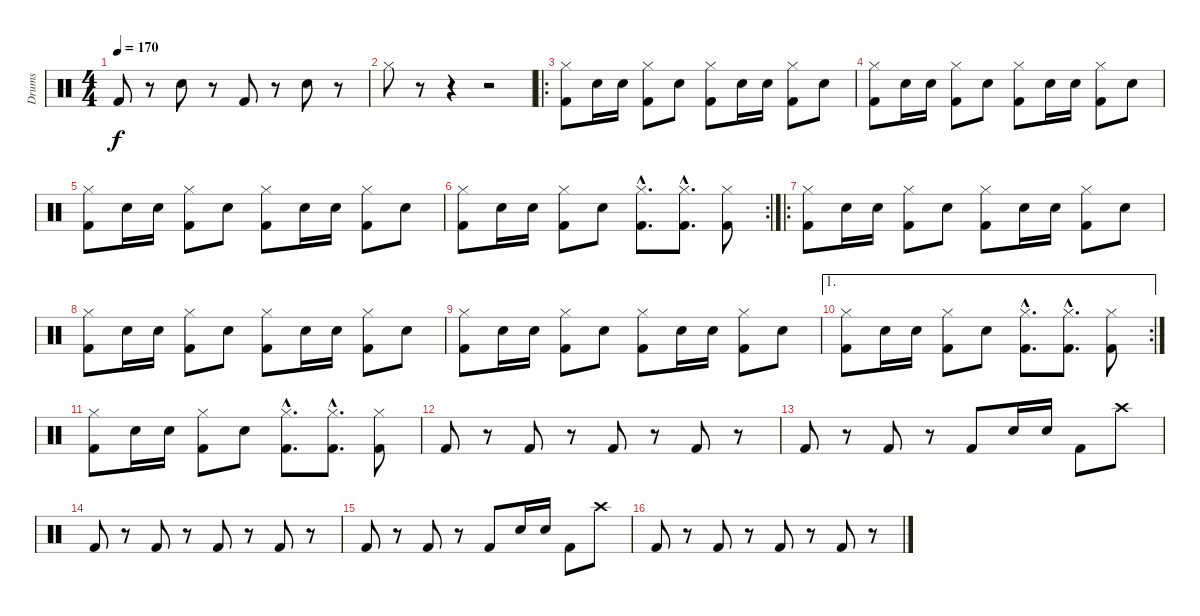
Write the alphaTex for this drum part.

\track ("Drums" "Drums") {instrument percussion}
\staff {score}
\articulation defaults
\ts (4 4)
\tempo 170
\clef neutral
\ks c "Kick (hit) 2".8{dy f}
r.8 "Electric Snare (hit)".8 r.8 "Kick (hit) 2".8 r.8 "Electric Snare (hit)".8 r.8 |
"Hi-Hat (closed)".8 r.8 r.4 r.2 |
\ro
("Hi-Hat (closed)" "Kick (hit) 2").8 "Electric Snare (hit)".16 "Electric Snare (hit)".16 ("Hi-Hat (closed)" "Kick (hit) 2").8 "Electric Snare (hit)".8 ("Hi-Hat (closed)" "Kick (hit) 2").8 "Electric Snare (hit)".16 "Electric Snare (hit)".16 ("Hi-Hat (closed)" "Kick (hit) 2").8 "Electric Snare (hit)".8 |
("Hi-Hat (closed)" "Kick (hit) 2").8 "Electric Snare (hit)".16 "Electric Snare (hit)".16 ("Hi-Hat (closed)" "Kick (hit) 2").8 "Electric Snare (hit)".8 ("Hi-Hat (closed)" "Kick (hit) 2").8 "Electric Snare (hit)".16 "Electric Snare (hit)".16 ("Hi-Hat (closed)" "Kick (hit) 2").8 "Electric Snare (hit)".8 |
("Hi-Hat (closed)" "Kick (hit) 2").8 "Electric Snare (hit)".16 "Electric Snare (hit)".16 ("Hi-Hat (closed)" "Kick (hit) 2").8 "Electric Snare (hit)".8 ("Hi-Hat (closed)" "Kick (hit) 2").8 "Electric Snare (hit)".16 "Electric Snare (hit)".16 ("Hi-Hat (closed)" "Kick (hit) 2").8 "Electric Snare (hit)".8 |
\rc 2
("Hi-Hat (closed)" "Kick (hit) 2").8 "Electric Snare (hit)".16 "Electric Snare (hit)".16 ("Hi-Hat (closed)" "Kick (hit) 2").8 "Electric Snare (hit)".8 ("Hi-Hat (closed)"{hac} "Kick (hit) 2"{hac}).8{d} ("Hi-Hat (closed)"{hac} "Kick (hit) 2"{hac}).8{d} ("Hi-Hat (closed)" "Kick (hit) 2").8 |
\ro
("Hi-Hat (closed)" "Kick (hit) 2").8 "Electric Snare (hit)".16 "Electric Snare (hit)".16 ("Hi-Hat (closed)" "Kick (hit) 2").8 "Electric Snare (hit)".8 ("Hi-Hat (closed)" "Kick (hit) 2").8 "Electric Snare (hit)".16 "Electric Snare (hit)".16 ("Hi-Hat (closed)" "Kick (hit) 2").8 "Electric Snare (hit)".8 |
("Hi-Hat (closed)" "Kick (hit) 2").8 "Electric Snare (hit)".16 "Electric Snare (hit)".16 ("Hi-Hat (closed)" "Kick (hit) 2").8 "Electric Snare (hit)".8 ("Hi-Hat (closed)" "Kick (hit) 2").8 "Electric Snare (hit)".16 "Electric Snare (hit)".16 ("Hi-Hat (closed)" "Kick (hit) 2").8 "Electric Snare (hit)".8 |
("Hi-Hat (closed)" "Kick (hit) 2").8 "Electric Snare (hit)".16 "Electric Snare (hit)".16 ("Hi-Hat (closed)" "Kick (hit) 2").8 "Electric Snare (hit)".8 ("Hi-Hat (closed)" "Kick (hit) 2").8 "Electric Snare (hit)".16 "Electric Snare (hit)".16 ("Hi-Hat (closed)" "Kick (hit) 2").8 "Electric Snare (hit)".8 |
\ae 1
\rc 2
("Hi-Hat (closed)" "Kick (hit) 2").8 "Electric Snare (hit)".16 "Electric Snare (hit)".16 ("Hi-Hat (closed)" "Kick (hit) 2").8 "Electric Snare (hit)".8 ("Hi-Hat (closed)"{hac} "Kick (hit) 2"{hac}).8{d} ("Hi-Hat (closed)"{hac} "Kick (hit) 2"{hac}).8{d} ("Hi-Hat (closed)" "Kick (hit) 2").8 |
("Hi-Hat (closed)" "Kick (hit) 2").8 "Electric Snare (hit)".16 "Electric Snare (hit)".16 ("Hi-Hat (closed)" "Kick (hit) 2").8 "Electric Snare (hit)".8 ("Hi-Hat (closed)"{hac} "Kick (hit) 2"{hac}).8{d} ("Hi-Hat (closed)"{hac} "Kick (hit) 2"{hac}).8{d} ("Hi-Hat (closed)" "Kick (hit) 2").8 |
"Kick (hit) 2".8 r.8 "Kick (hit) 2".8 r.8 "Kick (hit) 2".8 r.8 "Kick (hit) 2".8 r.8 |
"Kick (hit) 2".8 r.8 "Kick (hit) 2".8 r.8 "Kick (hit) 2".8 "Electric Snare (hit)".16 "Electric Snare (hit)".16 "Kick (hit) 2".8 "Crash high (hit)".8 |
"Kick (hit) 2".8 r.8 "Kick (hit) 2".8 r.8 "Kick (hit) 2".8 r.8 "Kick (hit) 2".8 r.8 |
"Kick (hit) 2".8 r.8 "Kick (hit) 2".8 r.8 "Kick (hit) 2".8 "Electric Snare (hit)".16 "Electric Snare (hit)".16 "Kick (hit) 2".8 "Crash high (hit)".8 |
"Kick (hit) 2".8 r.8 "Kick (hit) 2".8 r.8 "Kick (hit) 2".8 r.8 "Kick (hit) 2".8 r.8
